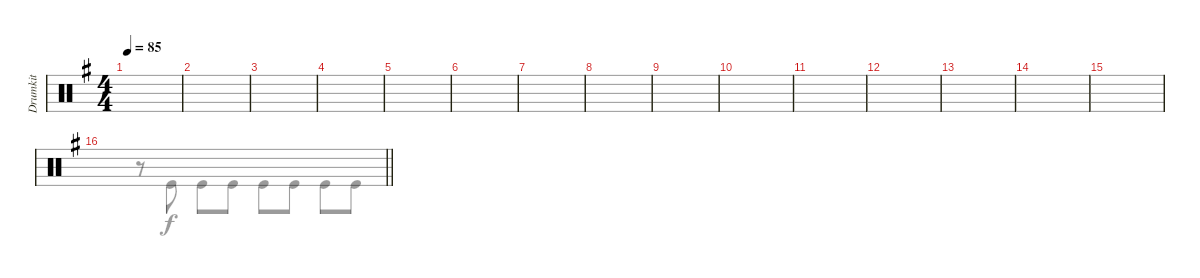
\track ("Drumkit" "Drumkit") {instrument percussion}
\staff {score}
\articulation defaults
\voice
\ts (4 4)
\tempo 85
\clef neutral
\ks eminor
|
|
|
|
|
|
|
|
|
|
|
|
|
|
|
\barLineRight lightlight
\voice
\clef neutral
\ks eminor
|
|
|
|
|
|
|
|
|
|
|
|
|
|
|
\barLineRight lightlight
r.8 "Kick (hit)".8 "Kick (hit)".8 "Kick (hit)".8 "Kick (hit)".8 "Kick (hit)".8 "Kick (hit)".8 "Kick (hit)".8
